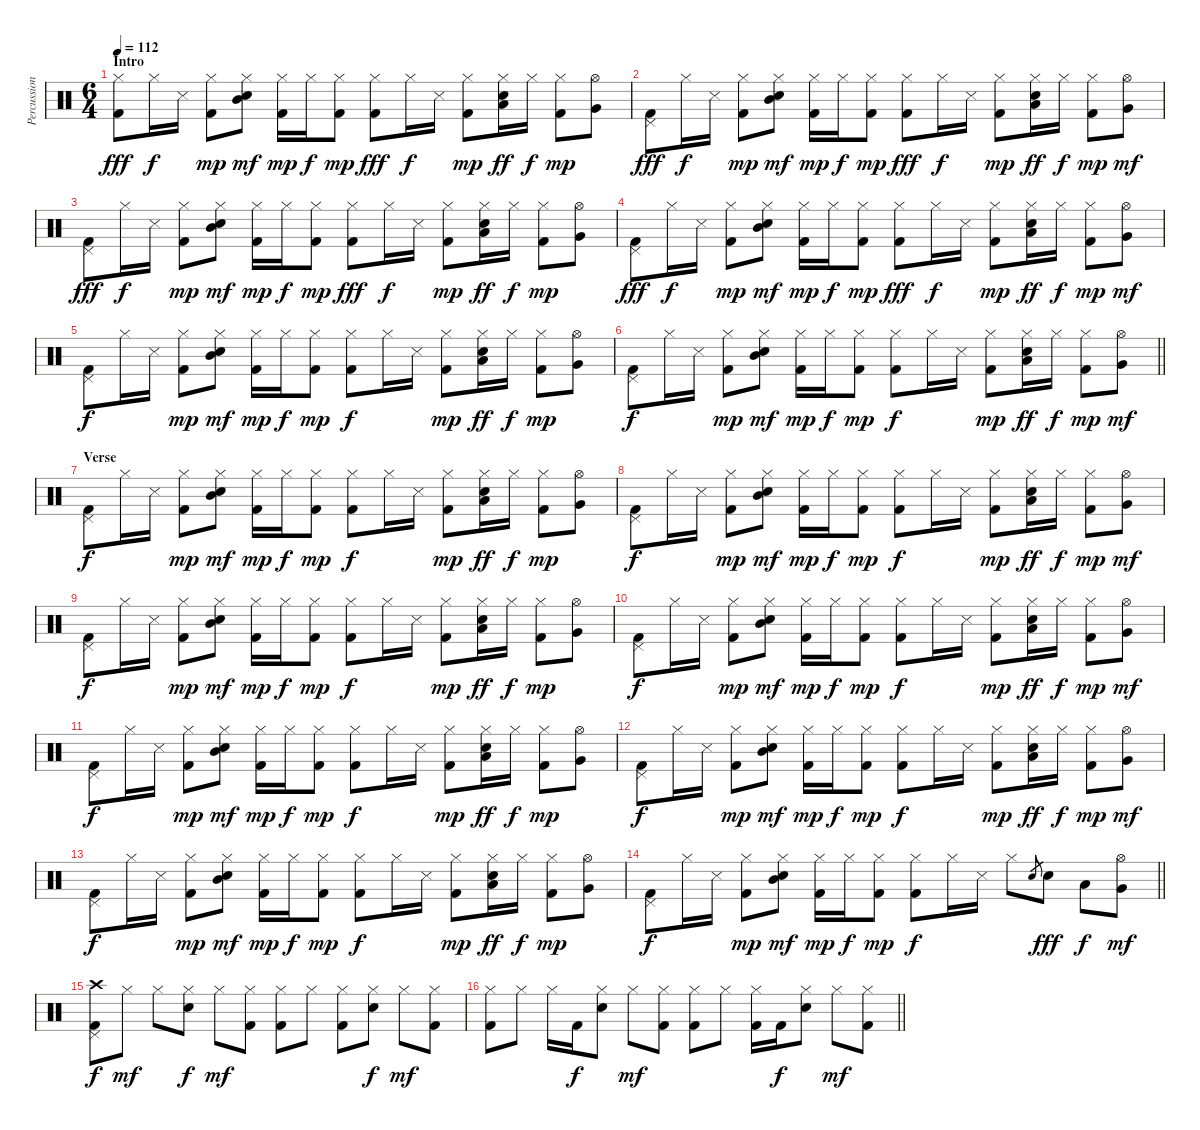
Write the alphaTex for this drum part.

\track ("Percussion" "Percussion") {instrument percussion}
\staff {score}
\articulation defaults
\ts (6 4)
\section ("" "Intro")
\tempo 112
\clef neutral
\ks c
("Hi-Hat (closed)" "Kick (hit) 2").8{dy fff} "Hi-Hat (closed)".16{dy f} "Snare (side stick) 3".16 ("Hi-Hat (closed)" "Kick (hit) 2").8{dy mp} ("Hi-Hat (closed)" "Snare (hit) 2" "Mid Tom (hit)").8{dy mf} ("Hi-Hat (closed)" "Kick (hit) 2").16{dy mp} "Hi-Hat (closed)".16{dy f} ("Hi-Hat (closed)" "Kick (hit) 2").8{dy mp} ("Hi-Hat (closed)" "Kick (hit) 2").8{dy fff} "Hi-Hat (closed)".16{dy f} "Snare (side stick) 3".16 ("Hi-Hat (closed)" "Kick (hit) 2").8{dy mp} ("Hi-Hat (closed)" "Snare (hit) 2" "Low Floor Tom (hit)").16{dy ff} "Hi-Hat (closed)".16{dy f} ("Hi-Hat (closed)" "Kick (hit) 2").8{dy mp} ("Hi-Hat (open)" "Very Low Tom (hit)").8 |
("Pedal Hi-Hat (hit)" "Kick (hit) 2").8{dy fff} "Hi-Hat (closed)".16{dy f} "Snare (side stick) 3".16 ("Hi-Hat (closed)" "Kick (hit) 2").8{dy mp} ("Hi-Hat (closed)" "Snare (hit) 2" "Mid Tom (hit)").8{dy mf} ("Hi-Hat (closed)" "Kick (hit) 2").16{dy mp} "Hi-Hat (closed)".16{dy f} ("Hi-Hat (closed)" "Kick (hit) 2").8{dy mp} ("Hi-Hat (closed)" "Kick (hit) 2").8{dy fff} "Hi-Hat (closed)".16{dy f} "Snare (side stick) 3".16 ("Hi-Hat (closed)" "Kick (hit) 2").8{dy mp} ("Hi-Hat (closed)" "Snare (hit) 2" "Low Floor Tom (hit)").16{dy ff} "Hi-Hat (closed)".16{dy f} ("Hi-Hat (closed)" "Kick (hit) 2").8{dy mp} ("Hi-Hat (open)" "Very Low Tom (hit)").8{dy mf} |
("Pedal Hi-Hat (hit)" "Kick (hit) 2").8{dy fff} "Hi-Hat (closed)".16{dy f} "Snare (side stick) 3".16 ("Hi-Hat (closed)" "Kick (hit) 2").8{dy mp} ("Hi-Hat (closed)" "Snare (hit) 2" "Mid Tom (hit)").8{dy mf} ("Hi-Hat (closed)" "Kick (hit) 2").16{dy mp} "Hi-Hat (closed)".16{dy f} ("Hi-Hat (closed)" "Kick (hit) 2").8{dy mp} ("Hi-Hat (closed)" "Kick (hit) 2").8{dy fff} "Hi-Hat (closed)".16{dy f} "Snare (side stick) 3".16 ("Hi-Hat (closed)" "Kick (hit) 2").8{dy mp} ("Hi-Hat (closed)" "Snare (hit) 2" "Low Floor Tom (hit)").16{dy ff} "Hi-Hat (closed)".16{dy f} ("Hi-Hat (closed)" "Kick (hit) 2").8{dy mp} ("Hi-Hat (open)" "Very Low Tom (hit)").8 |
("Pedal Hi-Hat (hit)" "Kick (hit) 2").8{dy fff} "Hi-Hat (closed)".16{dy f} "Snare (side stick) 3".16 ("Hi-Hat (closed)" "Kick (hit) 2").8{dy mp} ("Hi-Hat (closed)" "Snare (hit) 2" "Mid Tom (hit)").8{dy mf} ("Hi-Hat (closed)" "Kick (hit) 2").16{dy mp} "Hi-Hat (closed)".16{dy f} ("Hi-Hat (closed)" "Kick (hit) 2").8{dy mp} ("Hi-Hat (closed)" "Kick (hit) 2").8{dy fff} "Hi-Hat (closed)".16{dy f} "Snare (side stick) 3".16 ("Hi-Hat (closed)" "Kick (hit) 2").8{dy mp} ("Hi-Hat (closed)" "Snare (hit) 2" "Low Floor Tom (hit)").16{dy ff} "Hi-Hat (closed)".16{dy f} ("Hi-Hat (closed)" "Kick (hit) 2").8{dy mp} ("Hi-Hat (open)" "Very Low Tom (hit)").8{dy mf} |
("Pedal Hi-Hat (hit)" "Kick (hit) 2").8{dy f} "Hi-Hat (closed)".16 "Snare (side stick) 3".16 ("Hi-Hat (closed)" "Kick (hit) 2").8{dy mp} ("Hi-Hat (closed)" "Snare (hit) 2" "Mid Tom (hit)").8{dy mf} ("Hi-Hat (closed)" "Kick (hit) 2").16{dy mp} "Hi-Hat (closed)".16{dy f} ("Hi-Hat (closed)" "Kick (hit) 2").8{dy mp} ("Hi-Hat (closed)" "Kick (hit) 2").8{dy f} "Hi-Hat (closed)".16 "Snare (side stick) 3".16 ("Hi-Hat (closed)" "Kick (hit) 2").8{dy mp} ("Hi-Hat (closed)" "Snare (hit) 2" "Low Floor Tom (hit)").16{dy ff} "Hi-Hat (closed)".16{dy f} ("Hi-Hat (closed)" "Kick (hit) 2").8{dy mp} ("Hi-Hat (open)" "Very Low Tom (hit)").8 |
\barLineRight lightlight
("Pedal Hi-Hat (hit)" "Kick (hit) 2").8{dy f} "Hi-Hat (closed)".16 "Snare (side stick) 3".16 ("Hi-Hat (closed)" "Kick (hit) 2").8{dy mp} ("Hi-Hat (closed)" "Snare (hit) 2" "Mid Tom (hit)").8{dy mf} ("Hi-Hat (closed)" "Kick (hit) 2").16{dy mp} "Hi-Hat (closed)".16{dy f} ("Hi-Hat (closed)" "Kick (hit) 2").8{dy mp} ("Hi-Hat (closed)" "Kick (hit) 2").8{dy f} "Hi-Hat (closed)".16 "Snare (side stick) 3".16 ("Hi-Hat (closed)" "Kick (hit) 2").8{dy mp} ("Hi-Hat (closed)" "Snare (hit) 2" "Low Floor Tom (hit)").16{dy ff} "Hi-Hat (closed)".16{dy f} ("Hi-Hat (closed)" "Kick (hit) 2").8{dy mp} ("Hi-Hat (open)" "Very Low Tom (hit)").8{dy mf} |
\section ("" "Verse")
("Pedal Hi-Hat (hit)" "Kick (hit) 2").8{dy f} "Hi-Hat (closed)".16 "Snare (side stick) 3".16 ("Hi-Hat (closed)" "Kick (hit) 2").8{dy mp} ("Hi-Hat (closed)" "Snare (hit) 2" "Mid Tom (hit)").8{dy mf} ("Hi-Hat (closed)" "Kick (hit) 2").16{dy mp} "Hi-Hat (closed)".16{dy f} ("Hi-Hat (closed)" "Kick (hit) 2").8{dy mp} ("Hi-Hat (closed)" "Kick (hit) 2").8{dy f} "Hi-Hat (closed)".16 "Snare (side stick) 3".16 ("Hi-Hat (closed)" "Kick (hit) 2").8{dy mp} ("Hi-Hat (closed)" "Snare (hit) 2" "Low Floor Tom (hit)").16{dy ff} "Hi-Hat (closed)".16{dy f} ("Hi-Hat (closed)" "Kick (hit) 2").8{dy mp} ("Hi-Hat (open)" "Very Low Tom (hit)").8 |
("Pedal Hi-Hat (hit)" "Kick (hit) 2").8{dy f} "Hi-Hat (closed)".16 "Snare (side stick) 3".16 ("Hi-Hat (closed)" "Kick (hit) 2").8{dy mp} ("Hi-Hat (closed)" "Snare (hit) 2" "Mid Tom (hit)").8{dy mf} ("Hi-Hat (closed)" "Kick (hit) 2").16{dy mp} "Hi-Hat (closed)".16{dy f} ("Hi-Hat (closed)" "Kick (hit) 2").8{dy mp} ("Hi-Hat (closed)" "Kick (hit) 2").8{dy f} "Hi-Hat (closed)".16 "Snare (side stick) 3".16 ("Hi-Hat (closed)" "Kick (hit) 2").8{dy mp} ("Hi-Hat (closed)" "Snare (hit) 2" "Low Floor Tom (hit)").16{dy ff} "Hi-Hat (closed)".16{dy f} ("Hi-Hat (closed)" "Kick (hit) 2").8{dy mp} ("Hi-Hat (open)" "Very Low Tom (hit)").8{dy mf} |
("Pedal Hi-Hat (hit)" "Kick (hit) 2").8{dy f} "Hi-Hat (closed)".16 "Snare (side stick) 3".16 ("Hi-Hat (closed)" "Kick (hit) 2").8{dy mp} ("Hi-Hat (closed)" "Snare (hit) 2" "Mid Tom (hit)").8{dy mf} ("Hi-Hat (closed)" "Kick (hit) 2").16{dy mp} "Hi-Hat (closed)".16{dy f} ("Hi-Hat (closed)" "Kick (hit) 2").8{dy mp} ("Hi-Hat (closed)" "Kick (hit) 2").8{dy f} "Hi-Hat (closed)".16 "Snare (side stick) 3".16 ("Hi-Hat (closed)" "Kick (hit) 2").8{dy mp} ("Hi-Hat (closed)" "Snare (hit) 2" "Low Floor Tom (hit)").16{dy ff} "Hi-Hat (closed)".16{dy f} ("Hi-Hat (closed)" "Kick (hit) 2").8{dy mp} ("Hi-Hat (open)" "Very Low Tom (hit)").8 |
("Pedal Hi-Hat (hit)" "Kick (hit) 2").8{dy f} "Hi-Hat (closed)".16 "Snare (side stick) 3".16 ("Hi-Hat (closed)" "Kick (hit) 2").8{dy mp} ("Hi-Hat (closed)" "Snare (hit) 2" "Mid Tom (hit)").8{dy mf} ("Hi-Hat (closed)" "Kick (hit) 2").16{dy mp} "Hi-Hat (closed)".16{dy f} ("Hi-Hat (closed)" "Kick (hit) 2").8{dy mp} ("Hi-Hat (closed)" "Kick (hit) 2").8{dy f} "Hi-Hat (closed)".16 "Snare (side stick) 3".16 ("Hi-Hat (closed)" "Kick (hit) 2").8{dy mp} ("Hi-Hat (closed)" "Snare (hit) 2" "Low Floor Tom (hit)").16{dy ff} "Hi-Hat (closed)".16{dy f} ("Hi-Hat (closed)" "Kick (hit) 2").8{dy mp} ("Hi-Hat (open)" "Very Low Tom (hit)").8{dy mf} |
("Pedal Hi-Hat (hit)" "Kick (hit) 2").8{dy f} "Hi-Hat (closed)".16 "Snare (side stick) 3".16 ("Hi-Hat (closed)" "Kick (hit) 2").8{dy mp} ("Hi-Hat (closed)" "Snare (hit) 2" "Mid Tom (hit)").8{dy mf} ("Hi-Hat (closed)" "Kick (hit) 2").16{dy mp} "Hi-Hat (closed)".16{dy f} ("Hi-Hat (closed)" "Kick (hit) 2").8{dy mp} ("Hi-Hat (closed)" "Kick (hit) 2").8{dy f} "Hi-Hat (closed)".16 "Snare (side stick) 3".16 ("Hi-Hat (closed)" "Kick (hit) 2").8{dy mp} ("Hi-Hat (closed)" "Snare (hit) 2" "Low Floor Tom (hit)").16{dy ff} "Hi-Hat (closed)".16{dy f} ("Hi-Hat (closed)" "Kick (hit) 2").8{dy mp} ("Hi-Hat (open)" "Very Low Tom (hit)").8 |
("Pedal Hi-Hat (hit)" "Kick (hit) 2").8{dy f} "Hi-Hat (closed)".16 "Snare (side stick) 3".16 ("Hi-Hat (closed)" "Kick (hit) 2").8{dy mp} ("Hi-Hat (closed)" "Snare (hit) 2" "Mid Tom (hit)").8{dy mf} ("Hi-Hat (closed)" "Kick (hit) 2").16{dy mp} "Hi-Hat (closed)".16{dy f} ("Hi-Hat (closed)" "Kick (hit) 2").8{dy mp} ("Hi-Hat (closed)" "Kick (hit) 2").8{dy f} "Hi-Hat (closed)".16 "Snare (side stick) 3".16 ("Hi-Hat (closed)" "Kick (hit) 2").8{dy mp} ("Hi-Hat (closed)" "Snare (hit) 2" "Low Floor Tom (hit)").16{dy ff} "Hi-Hat (closed)".16{dy f} ("Hi-Hat (closed)" "Kick (hit) 2").8{dy mp} ("Hi-Hat (open)" "Very Low Tom (hit)").8{dy mf} |
("Pedal Hi-Hat (hit)" "Kick (hit) 2").8{dy f} "Hi-Hat (closed)".16 "Snare (side stick) 3".16 ("Hi-Hat (closed)" "Kick (hit) 2").8{dy mp} ("Hi-Hat (closed)" "Snare (hit) 2" "Mid Tom (hit)").8{dy mf} ("Hi-Hat (closed)" "Kick (hit) 2").16{dy mp} "Hi-Hat (closed)".16{dy f} ("Hi-Hat (closed)" "Kick (hit) 2").8{dy mp} ("Hi-Hat (closed)" "Kick (hit) 2").8{dy f} "Hi-Hat (closed)".16 "Snare (side stick) 3".16 ("Hi-Hat (closed)" "Kick (hit) 2").8{dy mp} ("Hi-Hat (closed)" "Snare (hit) 2" "Low Floor Tom (hit)").16{dy ff} "Hi-Hat (closed)".16{dy f} ("Hi-Hat (closed)" "Kick (hit) 2").8{dy mp} ("Hi-Hat (open)" "Very Low Tom (hit)").8 |
\barLineRight lightlight
("Pedal Hi-Hat (hit)" "Kick (hit) 2").8{dy f} "Hi-Hat (closed)".16 "Snare (side stick) 3".16 ("Hi-Hat (closed)" "Kick (hit) 2").8{dy mp} ("Hi-Hat (closed)" "Snare (hit) 2" "Mid Tom (hit)").8{dy mf} ("Hi-Hat (closed)" "Kick (hit) 2").16{dy mp} "Hi-Hat (closed)".16{dy f} ("Hi-Hat (closed)" "Kick (hit) 2").8{dy mp} ("Hi-Hat (closed)" "Kick (hit) 2").8{dy f} "Hi-Hat (closed)".16 "Snare (side stick) 3".16 "Hi-Hat (closed)".8 "Snare (hit) 2".8{gr} "Snare (hit) 2".8{dy fff} "Low Tom (hit)".8{dy f} ("Hi-Hat (open)" "Very Low Tom (hit)").8{dy mf} |
\section ("" "")
("Crash high (hit)" "Pedal Hi-Hat (hit)" "Kick (hit) 2").8{dy f} "Hi-Hat (closed)".8{dy mf} "Hi-Hat (closed)".8 ("Hi-Hat (closed)" "Snare (hit) 2").8{dy f} "Hi-Hat (closed)".8{dy mf} ("Hi-Hat (closed)" "Kick (hit) 2").8 ("Hi-Hat (closed)" "Kick (hit) 2").8 "Hi-Hat (closed)".8 ("Hi-Hat (closed)" "Kick (hit) 2").8 ("Hi-Hat (closed)" "Snare (hit) 2").8{dy f} "Hi-Hat (closed)".8{dy mf} ("Hi-Hat (closed)" "Kick (hit) 2").8 |
\barLineRight lightlight
("Hi-Hat (closed)" "Kick (hit) 2").8 "Hi-Hat (closed)".8 "Hi-Hat (closed)".16 "Kick (hit) 2".16{dy f} ("Hi-Hat (closed)" "Snare (hit) 2").8 "Hi-Hat (closed)".8{dy mf} ("Hi-Hat (closed)" "Kick (hit) 2").8 ("Hi-Hat (closed)" "Kick (hit) 2").8 "Hi-Hat (closed)".8 ("Hi-Hat (closed)" "Kick (hit) 2").16 "Kick (hit) 2".16{dy f} ("Hi-Hat (closed)" "Snare (hit) 2").8 "Hi-Hat (closed)".8{dy mf} ("Hi-Hat (closed)" "Kick (hit) 2").8
